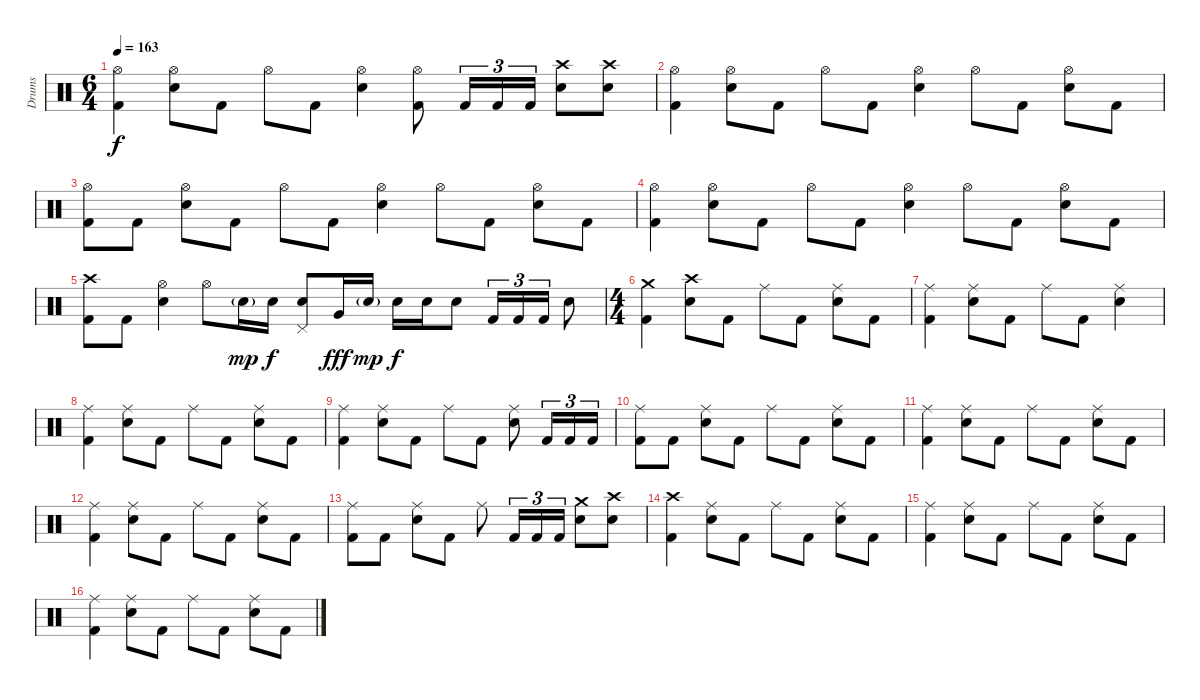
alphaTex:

\track ("Drums" "Drums") {instrument percussion}
\staff {score}
\articulation defaults
\ts (6 4)
\tempo 163
\clef neutral
\ks c
("Hi-Hat (open)" "Kick (hit) 2").4{dy f} ("Hi-Hat (open)" "Electric Snare (hit)").8 "Kick (hit) 2".8 "Hi-Hat (open)".8 "Kick (hit) 2".8 ("Hi-Hat (open)" "Electric Snare (hit)").4 ("Hi-Hat (open)" "Kick (hit) 2").8 "Kick (hit) 2".16{tu (3 2)} "Kick (hit) 2".16{tu (3 2)} "Kick (hit) 2".16{tu (3 2)} ("Crash high (hit)" "Electric Snare (hit)").8 ("Crash high (hit)" "Electric Snare (hit)").8 |
("Hi-Hat (open)" "Kick (hit) 2").4 ("Hi-Hat (open)" "Electric Snare (hit)").8 "Kick (hit) 2".8 "Hi-Hat (open)".8 "Kick (hit) 2".8 ("Hi-Hat (open)" "Electric Snare (hit)").4 "Hi-Hat (open)".8 "Kick (hit) 2".8 ("Hi-Hat (open)" "Electric Snare (hit)").8 "Kick (hit) 2".8 |
("Hi-Hat (open)" "Kick (hit) 2").8 "Kick (hit) 2".8 ("Hi-Hat (open)" "Electric Snare (hit)").8 "Kick (hit) 2".8 "Hi-Hat (open)".8 "Kick (hit) 2".8 ("Hi-Hat (open)" "Electric Snare (hit)").4 "Hi-Hat (open)".8 "Kick (hit) 2".8 ("Hi-Hat (open)" "Electric Snare (hit)").8 "Kick (hit) 2".8 |
("Hi-Hat (open)" "Kick (hit) 2").4 ("Hi-Hat (open)" "Electric Snare (hit)").8 "Kick (hit) 2".8 "Hi-Hat (open)".8 "Kick (hit) 2".8 ("Hi-Hat (open)" "Electric Snare (hit)").4 "Hi-Hat (open)".8 "Kick (hit) 2".8 ("Hi-Hat (open)" "Electric Snare (hit)").8 "Kick (hit) 2".8 |
("Crash high (hit)" "Kick (hit) 2").8 "Kick (hit) 2".8 ("Hi-Hat (open)" "Electric Snare (hit)").4 "Hi-Hat (open)".8 "Electric Snare (hit)"{g}.16{dy mp} "Electric Snare (hit)".16{dy f} ("Pedal Hi-Hat (hit)" "Electric Snare (hit)").8 "Very Low Tom (hit)".16{dy fff} "Electric Snare (hit)"{g}.16{dy mp} "Electric Snare (hit)".16{dy f} "Electric Snare (hit)".16 "Electric Snare (hit)".8 "Kick (hit) 2".16{tu (3 2)} "Kick (hit) 2".16{tu (3 2)} "Kick (hit) 2".16{tu (3 2)} "Electric Snare (hit)".8 |
\ts (4 4)
("Crash medium (hit)" "Kick (hit) 2").4 ("Crash high (hit)" "Electric Snare (hit)").8 "Kick (hit) 2".8 "Ride (middle)".8 "Kick (hit) 2".8 ("Ride (middle)" "Electric Snare (hit)").8 "Kick (hit) 2".8 |
("Ride (middle)" "Kick (hit) 2").4 ("Ride (middle)" "Electric Snare (hit)").8 "Kick (hit) 2".8 "Ride (middle)".8 "Kick (hit) 2".8 ("Ride (middle)" "Electric Snare (hit)").4 |
("Ride (middle)" "Kick (hit) 2").4 ("Ride (middle)" "Electric Snare (hit)").8 "Kick (hit) 2".8 "Ride (middle)".8 "Kick (hit) 2".8 ("Ride (middle)" "Electric Snare (hit)").8 "Kick (hit) 2".8 |
("Ride (middle)" "Kick (hit) 2").4 ("Ride (middle)" "Electric Snare (hit)").8 "Kick (hit) 2".8 "Ride (middle)".8 "Kick (hit) 2".8 ("Ride (middle)" "Electric Snare (hit)").8 "Kick (hit) 2".16{tu (3 2)} "Kick (hit) 2".16{tu (3 2)} "Kick (hit) 2".16{tu (3 2)} |
("Ride (middle)" "Kick (hit) 2").8 "Kick (hit) 2".8 ("Ride (middle)" "Electric Snare (hit)").8 "Kick (hit) 2".8 "Ride (middle)".8 "Kick (hit) 2".8 ("Ride (middle)" "Electric Snare (hit)").8 "Kick (hit) 2".8 |
("Ride (middle)" "Kick (hit) 2").4 ("Ride (middle)" "Electric Snare (hit)").8 "Kick (hit) 2".8 "Ride (middle)".8 "Kick (hit) 2".8 ("Ride (middle)" "Electric Snare (hit)").8 "Kick (hit) 2".8 |
("Ride (middle)" "Kick (hit) 2").4 ("Ride (middle)" "Electric Snare (hit)").8 "Kick (hit) 2".8 "Ride (middle)".8 "Kick (hit) 2".8 ("Ride (middle)" "Electric Snare (hit)").8 "Kick (hit) 2".8 |
("Ride (middle)" "Kick (hit) 2").8 "Kick (hit) 2".8 ("Ride (middle)" "Electric Snare (hit)").8 "Kick (hit) 2".8 "Ride (middle)".8 "Kick (hit) 2".16{tu (3 2)} "Kick (hit) 2".16{tu (3 2)} "Kick (hit) 2".16{tu (3 2)} ("Crash medium (hit)" "Electric Snare (hit)").8 ("Crash high (hit)" "Electric Snare (hit)").8 |
("Crash high (hit)" "Kick (hit) 2").4 ("Ride (middle)" "Electric Snare (hit)").8 "Kick (hit) 2".8 "Ride (middle)".8 "Kick (hit) 2".8 ("Ride (middle)" "Electric Snare (hit)").8 "Kick (hit) 2".8 |
("Ride (middle)" "Kick (hit) 2").4 ("Ride (middle)" "Electric Snare (hit)").8 "Kick (hit) 2".8 "Ride (middle)".8 "Kick (hit) 2".8 ("Ride (middle)" "Electric Snare (hit)").8 "Kick (hit) 2".8 |
("Ride (middle)" "Kick (hit) 2").4 ("Ride (middle)" "Electric Snare (hit)").8 "Kick (hit) 2".8 "Ride (middle)".8 "Kick (hit) 2".8 ("Ride (middle)" "Electric Snare (hit)").8 "Kick (hit) 2".8
